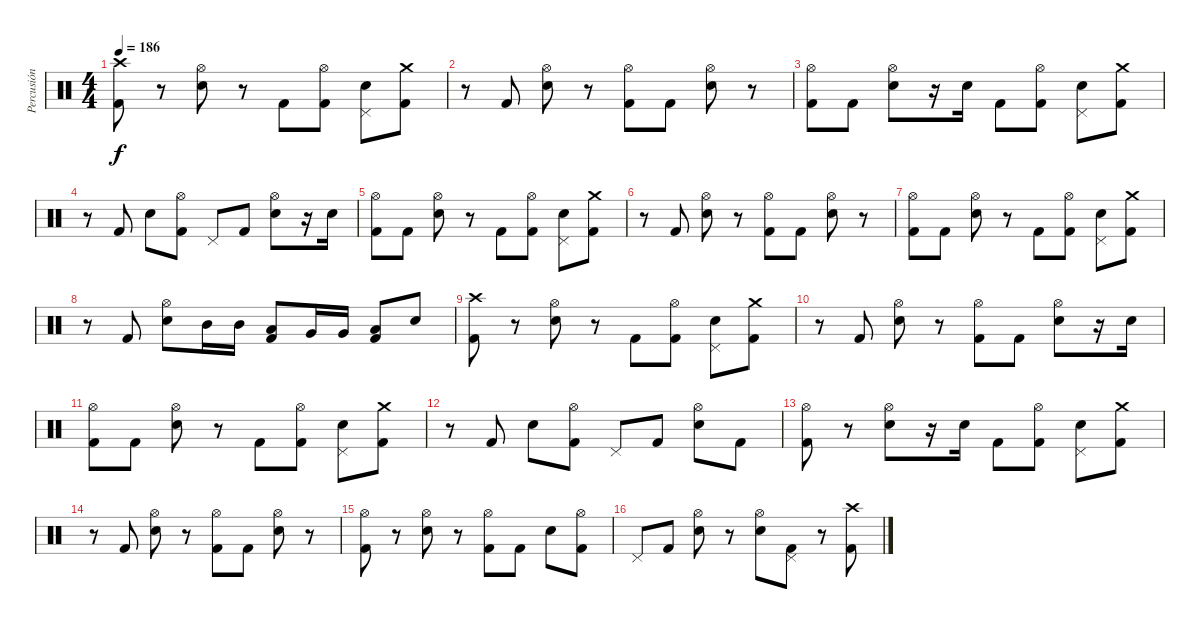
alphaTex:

\track ("Percusión" "Percusión") {instrument percussion}
\staff {score}
\articulation defaults
\ts (4 4)
\tempo 186
\clef neutral
\ks c
("Kick (hit) 2" "Crash high (hit)").8{dy f} r.8 ("Snare (hit) 2" "Hi-Hat (open)").8 r.8 "Kick (hit) 2".8 ("Kick (hit) 2" "Hi-Hat (open)").8 ("Snare (hit) 2" "Pedal Hi-Hat (hit)").8 ("Kick (hit) 2" "Crash medium (hit)").8 |
r.8 "Kick (hit) 2".8 ("Snare (hit) 2" "Hi-Hat (open)").8 r.8 ("Kick (hit) 2" "Hi-Hat (open)").8 "Kick (hit) 2".8 ("Snare (hit) 2" "Hi-Hat (open)").8 r.8 |
("Kick (hit) 2" "Hi-Hat (open)").8 "Kick (hit) 2".8 ("Snare (hit) 2" "Hi-Hat (open)").8 r.16 "Snare (hit) 2".16 "Kick (hit) 2".8 ("Kick (hit) 2" "Hi-Hat (open)").8 ("Snare (hit) 2" "Pedal Hi-Hat (hit)").8 ("Kick (hit) 2" "Crash medium (hit)").8 |
r.8 "Kick (hit) 2".8 "Snare (hit) 2".8 ("Kick (hit) 2" "Hi-Hat (open)").8 "Pedal Hi-Hat (hit)".8 "Kick (hit) 2".8 ("Snare (hit) 2" "Hi-Hat (open)").8 r.16 "Snare (hit) 2".16 |
("Kick (hit) 2" "Hi-Hat (open)").8 "Kick (hit) 2".8 ("Snare (hit) 2" "Hi-Hat (open)").8 r.8 "Kick (hit) 2".8 ("Kick (hit) 2" "Hi-Hat (open)").8 ("Snare (hit) 2" "Pedal Hi-Hat (hit)").8 ("Kick (hit) 2" "Crash medium (hit)").8 |
r.8 "Kick (hit) 2".8 ("Snare (hit) 2" "Hi-Hat (open)").8 r.8 ("Kick (hit) 2" "Hi-Hat (open)").8 "Kick (hit) 2".8 ("Snare (hit) 2" "Hi-Hat (open)").8 r.8 |
("Kick (hit) 2" "Hi-Hat (open)").8 "Kick (hit) 2".8 ("Snare (hit) 2" "Hi-Hat (open)").8 r.8 "Kick (hit) 2".8 ("Kick (hit) 2" "Hi-Hat (open)").8 ("Snare (hit) 2" "Pedal Hi-Hat (hit)").8 ("Kick (hit) 2" "Crash medium (hit)").8 |
r.8 "Kick (hit) 2".8 ("Snare (hit) 2" "Hi-Hat (open)").8 "Mid Tom (hit)".16 "Mid Tom (hit)".16 ("Kick (hit) 2" "Low Tom (hit)").8 "Very Low Tom (hit)".16 "Very Low Tom (hit)".16 ("Kick (hit) 2" "Low Floor Tom (hit)").8 "Snare (hit) 2".8 |
("Kick (hit) 2" "Crash high (hit)").8 r.8 ("Snare (hit) 2" "Hi-Hat (open)").8 r.8 "Kick (hit) 2".8 ("Kick (hit) 2" "Hi-Hat (open)").8 ("Snare (hit) 2" "Pedal Hi-Hat (hit)").8 ("Kick (hit) 2" "Crash medium (hit)").8 |
r.8 "Kick (hit) 2".8 ("Snare (hit) 2" "Hi-Hat (open)").8 r.8 ("Kick (hit) 2" "Hi-Hat (open)").8 "Kick (hit) 2".8 ("Snare (hit) 2" "Hi-Hat (open)").8 r.16 "Snare (hit) 2".16 |
("Kick (hit) 2" "Hi-Hat (open)").8 "Kick (hit) 2".8 ("Snare (hit) 2" "Hi-Hat (open)").8 r.8 "Kick (hit) 2".8 ("Kick (hit) 2" "Hi-Hat (open)").8 ("Snare (hit) 2" "Pedal Hi-Hat (hit)").8 ("Kick (hit) 2" "Crash medium (hit)").8 |
r.8 "Kick (hit) 2".8 "Snare (hit) 2".8 ("Kick (hit) 2" "Hi-Hat (open)").8 "Pedal Hi-Hat (hit)".8 "Kick (hit) 2".8 ("Snare (hit) 2" "Hi-Hat (open)").8 "Kick (hit) 2".8 |
("Kick (hit) 2" "Hi-Hat (open)").8 r.8 ("Snare (hit) 2" "Hi-Hat (open)").8 r.16 "Snare (hit) 2".16 "Kick (hit) 2".8 ("Kick (hit) 2" "Hi-Hat (open)").8 ("Snare (hit) 2" "Pedal Hi-Hat (hit)").8 ("Kick (hit) 2" "Crash medium (hit)").8 |
r.8 "Kick (hit) 2".8 ("Snare (hit) 2" "Hi-Hat (open)").8 r.8 ("Kick (hit) 2" "Hi-Hat (open)").8 "Kick (hit) 2".8 ("Snare (hit) 2" "Hi-Hat (open)").8 r.8 |
("Kick (hit) 2" "Hi-Hat (open)").8 r.8 ("Snare (hit) 2" "Hi-Hat (open)").8 r.8 ("Kick (hit) 2" "Hi-Hat (open)").8 "Kick (hit) 2".8 "Snare (hit) 2".8 ("Kick (hit) 2" "Hi-Hat (open)").8 |
"Pedal Hi-Hat (hit)".8 "Kick (hit) 2".8 ("Snare (hit) 2" "Hi-Hat (open)").8 r.8 ("Snare (hit) 2" "Hi-Hat (open)").8 ("Kick (hit) 2" "Pedal Hi-Hat (hit)").8 r.8 ("Kick (hit) 2" "Crash high (hit)").8
